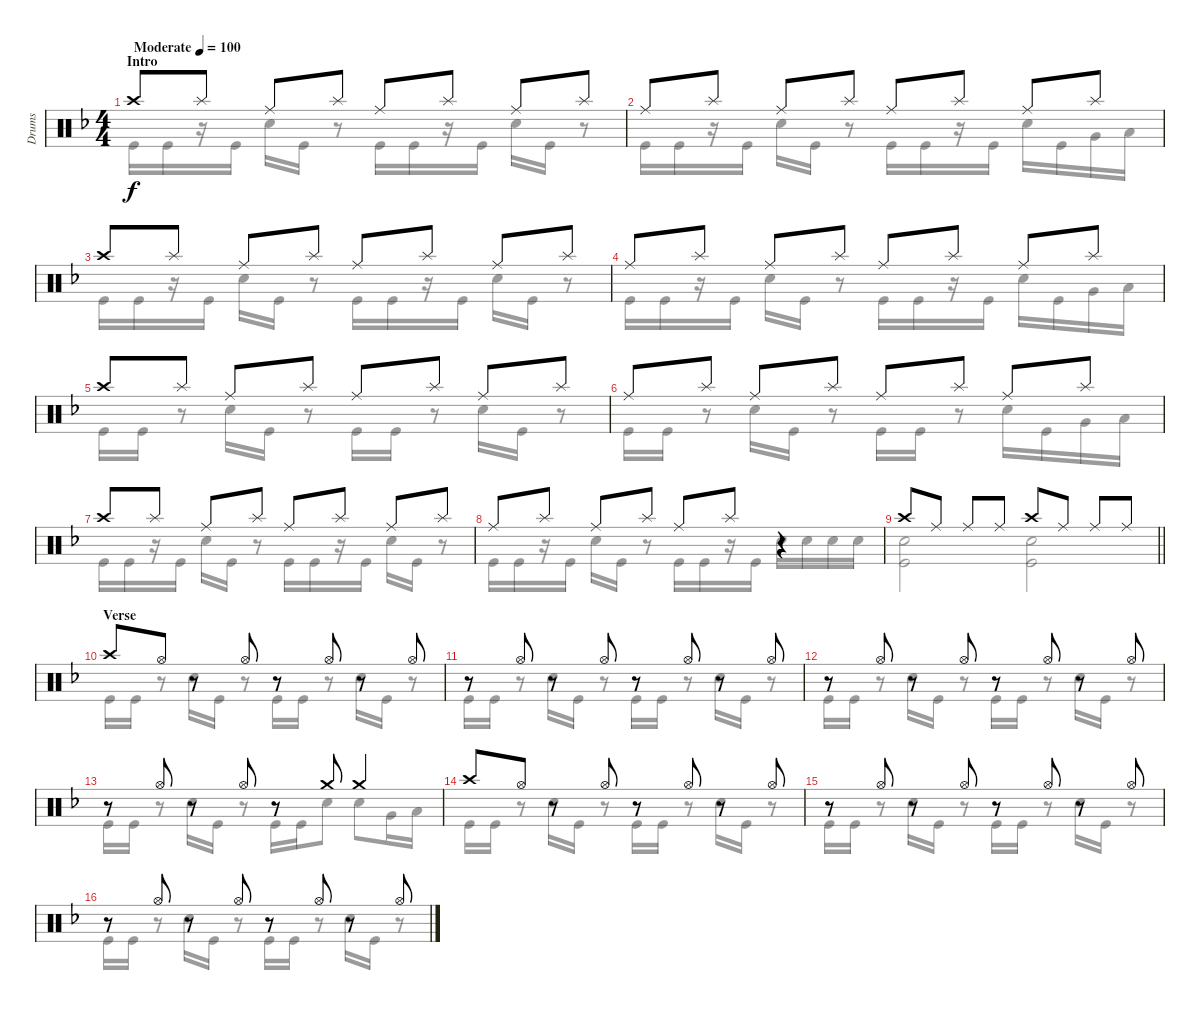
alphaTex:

\track ("Drums" "Drums") {instrument percussion}
\staff {score}
\articulation defaults
\voice
\ts (4 4)
\section ("" "Intro")
\tempo (100 "Moderate")
\clef neutral
\ks dminor "Crash high (hit)".8{dy f} "Splash (hit)".8 "Ride (middle)".8 "Splash (hit)".8 "Ride (middle)".8 "Splash (hit)".8 "Ride (middle)".8 "Splash (hit)".8
|
"Ride (middle)".8 "Splash (hit)".8 "Ride (middle)".8 "Splash (hit)".8 "Ride (middle)".8 "Splash (hit)".8 "Ride (middle)".8 "Splash (hit)".8 |
"Crash high (hit)".8 "Splash (hit)".8 "Ride (middle)".8 "Splash (hit)".8 "Ride (middle)".8 "Splash (hit)".8 "Ride (middle)".8 "Splash (hit)".8 |
"Ride (middle)".8 "Splash (hit)".8 "Ride (middle)".8 "Splash (hit)".8 "Ride (middle)".8 "Splash (hit)".8 "Ride (middle)".8 "Splash (hit)".8 |
"Crash high (hit)".8 "Splash (hit)".8 "Ride (middle)".8 "Splash (hit)".8 "Ride (middle)".8 "Splash (hit)".8 "Ride (middle)".8 "Splash (hit)".8 |
"Ride (middle)".8 "Splash (hit)".8 "Ride (middle)".8 "Splash (hit)".8 "Ride (middle)".8 "Splash (hit)".8 "Ride (middle)".8 "Splash (hit)".8 |
"Crash high (hit)".8 "Splash (hit)".8 "Ride (middle)".8 "Splash (hit)".8 "Ride (middle)".8 "Splash (hit)".8 "Ride (middle)".8 "Splash (hit)".8 |
"Ride (middle)".8 "Splash (hit)".8 "Ride (middle)".8 "Splash (hit)".8 "Ride (middle)".8 "Splash (hit)".8 r.4 |
\barLineRight lightlight "Crash high (hit)".8 "Ride (middle)".8 "Ride (middle)".8 "Ride (middle)".8 "Crash high (hit)".8 "Ride (middle)".8 "Ride (middle)".8 "Ride (middle)".8
|
\section ("" "Verse")
"Crash high (hit)".8 "Hi-Hat (open)".8 r.8 "Hi-Hat (open)".8 r.8 "Hi-Hat (open)".8 r.8 "Hi-Hat (open)".8 |
r.8 "Hi-Hat (open)".8 r.8 "Hi-Hat (open)".8 r.8 "Hi-Hat (open)".8 r.8 "Hi-Hat (open)".8 |
r.8 "Hi-Hat (open)".8 r.8 "Hi-Hat (open)".8 r.8 "Hi-Hat (open)".8 r.8 "Hi-Hat (open)".8 |
r.8 "Hi-Hat (open)".8 r.8 "Hi-Hat (open)".8 r.8 "Crash medium (hit)".8 "Crash medium (hit)".4 |
"Crash high (hit)".8 "Hi-Hat (open)".8 r.8 "Hi-Hat (open)".8 r.8 "Hi-Hat (open)".8 r.8 "Hi-Hat (open)".8 |
r.8 "Hi-Hat (open)".8 r.8 "Hi-Hat (open)".8 r.8 "Hi-Hat (open)".8 r.8 "Hi-Hat (open)".8 |
r.8 "Hi-Hat (open)".8 r.8 "Hi-Hat (open)".8 r.8 "Hi-Hat (open)".8 r.8 "Hi-Hat (open)".8
\voice
\clef neutral
\ottava regular
\simile none
\ks dminor "Kick (hit)".16{dy f} "Kick (hit)".16
r.16 "Kick (hit)".16 "Snare (hit) 2".16 "Kick (hit)".16 r.8 "Kick (hit)".16 "Kick (hit)".16 r.16 "Kick (hit)".16 "Snare (hit) 2".16 "Kick (hit)".16 r.8 |
"Kick (hit)".16 "Kick (hit)".16 r.16 "Kick (hit)".16 "Snare (hit) 2".16 "Kick (hit)".16 r.8 "Kick (hit)".16 "Kick (hit)".16 r.16 "Kick (hit)".16 "Snare (hit) 2".16 "Kick (hit)".16 "Very Low Tom (hit)".16 "Low Floor Tom (hit)".16 |
"Kick (hit)".16 "Kick (hit)".16 r.16 "Kick (hit)".16 "Snare (hit) 2".16 "Kick (hit)".16 r.8 "Kick (hit)".16 "Kick (hit)".16 r.16 "Kick (hit)".16 "Snare (hit) 2".16 "Kick (hit)".16 r.8 |
"Kick (hit)".16 "Kick (hit)".16 r.16 "Kick (hit)".16 "Snare (hit) 2".16 "Kick (hit)".16 r.8 "Kick (hit)".16 "Kick (hit)".16 r.16 "Kick (hit)".16 "Snare (hit) 2".16 "Kick (hit)".16 "Very Low Tom (hit)".16 "Low Floor Tom (hit)".16 |
"Kick (hit)".16 "Kick (hit)".16 r.8 "Snare (hit) 2".16 "Kick (hit)".16 r.8 "Kick (hit)".16 "Kick (hit)".16 r.8 "Snare (hit) 2".16 "Kick (hit)".16 r.8 |
"Kick (hit)".16 "Kick (hit)".16 r.8 "Snare (hit) 2".16 "Kick (hit)".16 r.8 "Kick (hit)".16 "Kick (hit)".16 r.8 "Snare (hit) 2".16 "Kick (hit)".16 "Very Low Tom (hit)".16 "Low Floor Tom (hit)".16 |
"Kick (hit)".16 "Kick (hit)".16 r.16 "Kick (hit)".16 "Snare (hit) 2".16 "Kick (hit)".16 r.8 "Kick (hit)".16 "Kick (hit)".16 r.16 "Kick (hit)".16 "Snare (hit) 2".16 "Kick (hit)".16 r.8 |
"Kick (hit)".16 "Kick (hit)".16 r.16 "Kick (hit)".16 "Snare (hit) 2".16 "Kick (hit)".16 r.8 "Kick (hit)".16 "Kick (hit)".16 r.16 "Kick (hit)".16 "Snare (hit) 2".16 "Snare (hit) 2".16 "Snare (hit) 2".16 "Snare (hit) 2".16 |
\barLineRight lightlight
("Snare (hit) 2" "Kick (hit)").2 ("Snare (hit) 2" "Kick (hit)").2 |
"Kick (hit)".16 "Kick (hit)".16 r.8 "Snare (hit) 2".16 "Kick (hit)".16 r.8 "Kick (hit)".16 "Kick (hit)".16 r.8 "Snare (hit) 2".16 "Kick (hit)".16 r.8 |
"Kick (hit)".16 "Kick (hit)".16 r.8 "Snare (hit) 2".16 "Kick (hit)".16 r.8 "Kick (hit)".16 "Kick (hit)".16 r.8 "Snare (hit) 2".16 "Kick (hit)".16 r.8 |
"Kick (hit)".16 "Kick (hit)".16 r.8 "Snare (hit) 2".16 "Kick (hit)".16 r.8 "Kick (hit)".16 "Kick (hit)".16 r.8 "Snare (hit) 2".16 "Kick (hit)".16 r.8 |
"Kick (hit)".16 "Kick (hit)".16 r.8 "Snare (hit) 2".16 "Kick (hit)".16 r.8 "Kick (hit)".16 "Kick (hit)".16 "Snare (hit) 2".8 "Snare (hit) 2".8 "Very Low Tom (hit)".16 "Low Floor Tom (hit)".16 |
"Kick (hit)".16 "Kick (hit)".16 r.8 "Snare (hit) 2".16 "Kick (hit)".16 r.8 "Kick (hit)".16 "Kick (hit)".16 r.8 "Snare (hit) 2".16 "Kick (hit)".16 r.8 |
"Kick (hit)".16 "Kick (hit)".16 r.8 "Snare (hit) 2".16 "Kick (hit)".16 r.8 "Kick (hit)".16 "Kick (hit)".16 r.8 "Snare (hit) 2".16 "Kick (hit)".16 r.8 |
"Kick (hit)".16 "Kick (hit)".16 r.8 "Snare (hit) 2".16 "Kick (hit)".16 r.8 "Kick (hit)".16 "Kick (hit)".16 r.8 "Snare (hit) 2".16 "Kick (hit)".16 r.8
